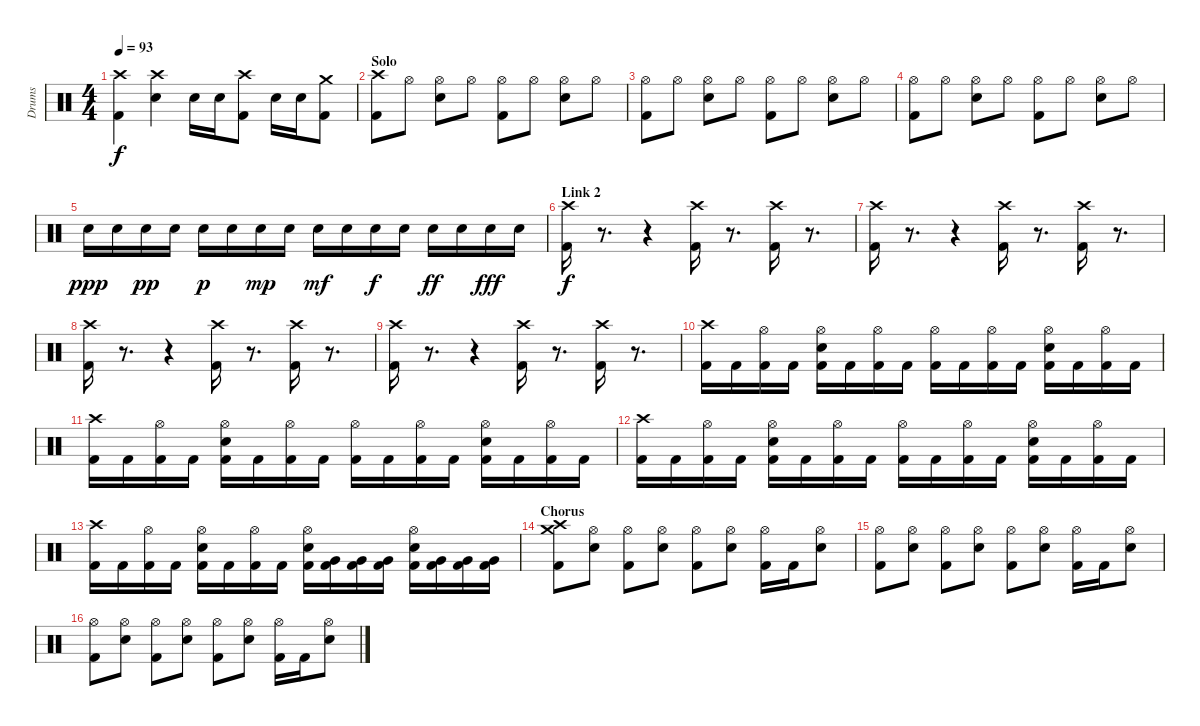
\track ("Drums" "Drums") {instrument percussion}
\staff {score}
\articulation defaults
\ts (4 4)
\tempo 93
\clef neutral
\ks c
("Crash high (hit)" "Kick (hit) 2").4{dy f} ("Crash high (hit)" "Electric Snare (hit)").4 "Electric Snare (hit)".16 "Electric Snare (hit)".16 ("Crash high (hit)" "Kick (hit) 2").8 "Electric Snare (hit)".16 "Electric Snare (hit)".16 ("Crash medium (hit)" "Kick (hit) 2").8 |
\section ("" "Solo")
("Crash high (hit)" "Kick (hit) 2").8 "Hi-Hat (open)".8 ("Hi-Hat (open)" "Electric Snare (hit)").8 "Hi-Hat (open)".8 ("Hi-Hat (open)" "Kick (hit) 2").8 "Hi-Hat (open)".8 ("Hi-Hat (open)" "Electric Snare (hit)").8 "Hi-Hat (open)".8 |
("Hi-Hat (open)" "Kick (hit) 2").8 "Hi-Hat (open)".8 ("Hi-Hat (open)" "Electric Snare (hit)").8 "Hi-Hat (open)".8 ("Hi-Hat (open)" "Kick (hit) 2").8 "Hi-Hat (open)".8 ("Hi-Hat (open)" "Electric Snare (hit)").8 "Hi-Hat (open)".8 |
("Hi-Hat (open)" "Kick (hit) 2").8 "Hi-Hat (open)".8 ("Hi-Hat (open)" "Electric Snare (hit)").8 "Hi-Hat (open)".8 ("Hi-Hat (open)" "Kick (hit) 2").8 "Hi-Hat (open)".8 ("Hi-Hat (open)" "Electric Snare (hit)").8 "Hi-Hat (open)".8 |
"Electric Snare (hit)".16{dy ppp} "Electric Snare (hit)".16 "Electric Snare (hit)".16{dy pp} "Electric Snare (hit)".16 "Electric Snare (hit)".16{dy p} "Electric Snare (hit)".16 "Electric Snare (hit)".16{dy mp} "Electric Snare (hit)".16 "Electric Snare (hit)".16{dy mf} "Electric Snare (hit)".16 "Electric Snare (hit)".16{dy f} "Electric Snare (hit)".16 "Electric Snare (hit)".16{dy ff} "Electric Snare (hit)".16 "Electric Snare (hit)".16{dy fff} "Electric Snare (hit)".16 |
\section ("" "Link 2")
("Crash high (hit)" "Kick (hit) 2").16{dy f} r.8{d} r.4 ("Crash high (hit)" "Kick (hit) 2").16 r.8{d} ("Crash high (hit)" "Kick (hit) 2").16 r.8{d} |
("Crash high (hit)" "Kick (hit) 2").16 r.8{d} r.4 ("Crash high (hit)" "Kick (hit) 2").16 r.8{d} ("Crash high (hit)" "Kick (hit) 2").16 r.8{d} |
("Crash high (hit)" "Kick (hit) 2").16 r.8{d} r.4 ("Crash high (hit)" "Kick (hit) 2").16 r.8{d} ("Crash high (hit)" "Kick (hit) 2").16 r.8{d} |
("Crash high (hit)" "Kick (hit) 2").16 r.8{d} r.4 ("Crash high (hit)" "Kick (hit) 2").16 r.8{d} ("Crash high (hit)" "Kick (hit) 2").16 r.8{d} |
\section ("" "")
("Crash high (hit)" "Kick (hit) 2").16 "Kick (hit) 2".16 ("Hi-Hat (open)" "Kick (hit) 2").16 "Kick (hit) 2".16 ("Hi-Hat (open)" "Electric Snare (hit)" "Kick (hit) 2").16 "Kick (hit) 2".16 ("Hi-Hat (open)" "Kick (hit) 2").16 "Kick (hit) 2".16 ("Hi-Hat (open)" "Kick (hit) 2").16 "Kick (hit) 2".16 ("Hi-Hat (open)" "Kick (hit) 2").16 "Kick (hit) 2".16 ("Hi-Hat (open)" "Electric Snare (hit)" "Kick (hit) 2").16 "Kick (hit) 2".16 ("Hi-Hat (open)" "Kick (hit) 2").16 "Kick (hit) 2".16 |
("Crash high (hit)" "Kick (hit) 2").16 "Kick (hit) 2".16 ("Hi-Hat (open)" "Kick (hit) 2").16 "Kick (hit) 2".16 ("Hi-Hat (open)" "Electric Snare (hit)" "Kick (hit) 2").16 "Kick (hit) 2".16 ("Hi-Hat (open)" "Kick (hit) 2").16 "Kick (hit) 2".16 ("Hi-Hat (open)" "Kick (hit) 2").16 "Kick (hit) 2".16 ("Hi-Hat (open)" "Kick (hit) 2").16 "Kick (hit) 2".16 ("Hi-Hat (open)" "Electric Snare (hit)" "Kick (hit) 2").16 "Kick (hit) 2".16 ("Hi-Hat (open)" "Kick (hit) 2").16 "Kick (hit) 2".16 |
("Crash high (hit)" "Kick (hit) 2").16 "Kick (hit) 2".16 ("Hi-Hat (open)" "Kick (hit) 2").16 "Kick (hit) 2".16 ("Hi-Hat (open)" "Electric Snare (hit)" "Kick (hit) 2").16 "Kick (hit) 2".16 ("Hi-Hat (open)" "Kick (hit) 2").16 "Kick (hit) 2".16 ("Hi-Hat (open)" "Kick (hit) 2").16 "Kick (hit) 2".16 ("Hi-Hat (open)" "Kick (hit) 2").16 "Kick (hit) 2".16 ("Hi-Hat (open)" "Electric Snare (hit)" "Kick (hit) 2").16 "Kick (hit) 2".16 ("Hi-Hat (open)" "Kick (hit) 2").16 "Kick (hit) 2".16 |
("Crash high (hit)" "Kick (hit) 2").16 "Kick (hit) 2".16 ("Hi-Hat (open)" "Kick (hit) 2").16 "Kick (hit) 2".16 ("Hi-Hat (open)" "Electric Snare (hit)" "Kick (hit) 2").16 "Kick (hit) 2".16 ("Hi-Hat (open)" "Kick (hit) 2").16 "Kick (hit) 2".16 ("Hi-Hat (open)" "Electric Snare (hit)" "Kick (hit) 2").16 ("Very Low Tom (hit)" "Kick (hit) 2").16 ("Very Low Tom (hit)" "Kick (hit) 2").16 ("Very Low Tom (hit)" "Kick (hit) 2").16 ("Hi-Hat (open)" "Electric Snare (hit)" "Kick (hit) 2").16 ("Very Low Tom (hit)" "Kick (hit) 2").16 ("Very Low Tom (hit)" "Kick (hit) 2").16 ("Very Low Tom (hit)" "Kick (hit) 2").16 |
\section ("" "Chorus")
("Crash high (hit)" "Crash medium (hit)" "Kick (hit) 2").8 ("Hi-Hat (open)" "Electric Snare (hit)").8 ("Hi-Hat (open)" "Kick (hit) 2").8 ("Hi-Hat (open)" "Electric Snare (hit)").8 ("Hi-Hat (open)" "Kick (hit) 2").8 ("Hi-Hat (open)" "Electric Snare (hit)").8 ("Hi-Hat (open)" "Kick (hit) 2").16 "Kick (hit) 2".16 ("Hi-Hat (open)" "Electric Snare (hit)").8 |
("Hi-Hat (open)" "Kick (hit) 2").8 ("Hi-Hat (open)" "Electric Snare (hit)").8 ("Hi-Hat (open)" "Kick (hit) 2").8 ("Hi-Hat (open)" "Electric Snare (hit)").8 ("Hi-Hat (open)" "Kick (hit) 2").8 ("Hi-Hat (open)" "Electric Snare (hit)").8 ("Hi-Hat (open)" "Kick (hit) 2").16 "Kick (hit) 2".16 ("Hi-Hat (open)" "Electric Snare (hit)").8 |
("Hi-Hat (open)" "Kick (hit) 2").8 ("Hi-Hat (open)" "Electric Snare (hit)").8 ("Hi-Hat (open)" "Kick (hit) 2").8 ("Hi-Hat (open)" "Electric Snare (hit)").8 ("Hi-Hat (open)" "Kick (hit) 2").8 ("Hi-Hat (open)" "Electric Snare (hit)").8 ("Hi-Hat (open)" "Kick (hit) 2").16 "Kick (hit) 2".16 ("Hi-Hat (open)" "Electric Snare (hit)").8
